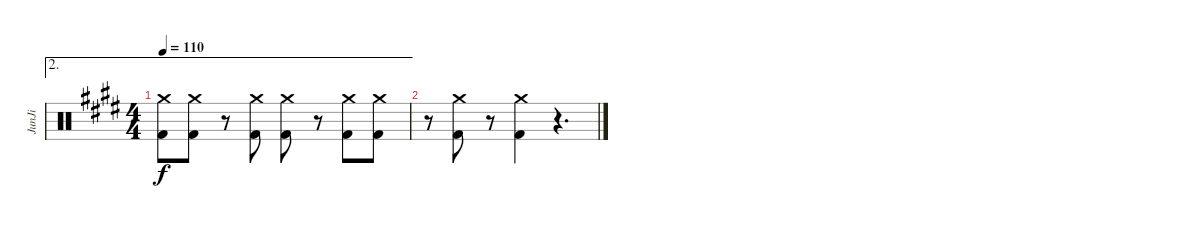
\track ("JunJi" "JunJi") {instrument percussion}
\staff {score}
\articulation defaults
\ae 2
\ts (4 4)
\tempo 110
\clef neutral
\ks c#minor
("Crash medium (hit)" "Kick (hit) 2").8{dy f} ("Crash medium (hit)" "Kick (hit) 2").8 r.8 ("Crash medium (hit)" "Kick (hit) 2").8 ("Crash medium (hit)" "Kick (hit) 2").8 r.8 ("Crash medium (hit)" "Kick (hit) 2").8 ("Crash medium (hit)" "Kick (hit) 2").8 |
r.8 ("Crash medium (hit)" "Kick (hit) 2").8 r.8 ("Crash medium (hit)" "Kick (hit) 2").4 r.4{d}
